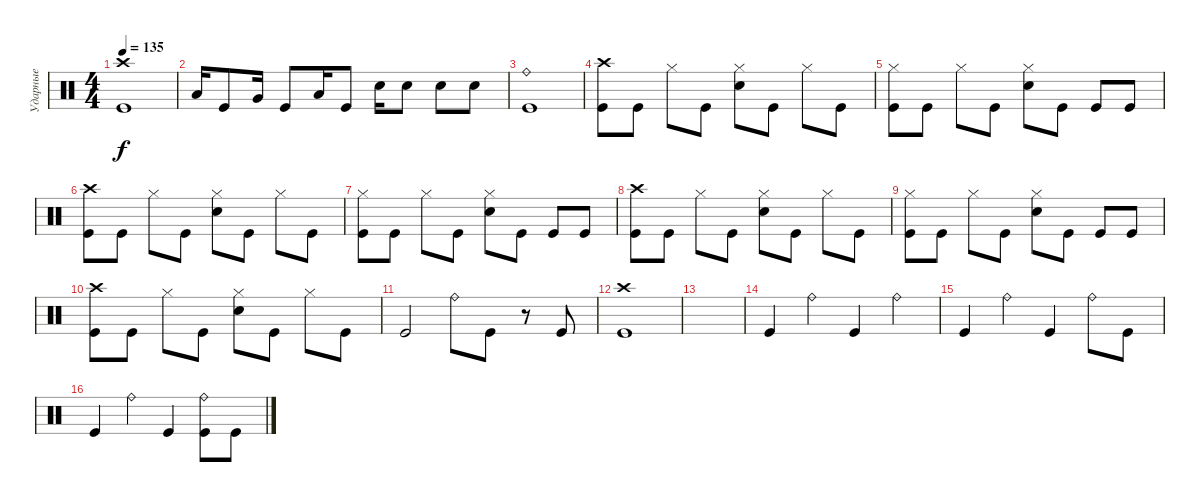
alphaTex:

\track ("Ударные" "Ударные") {instrument percussion}
\staff {score}
\articulation defaults
\ts (4 4)
\tempo 135
\clef neutral
\ks c
("Crash high (hit)" "Kick (hit)").1{dy f} |
"Low Tom (hit)".16 "Kick (hit)".8 "Very Low Tom (hit)".16 "Kick (hit)".8 "Low Tom (hit)".16 "Kick (hit)".8 "Electric Snare (hit)".16 "Electric Snare (hit)".8 "Electric Snare (hit)".8 "Electric Snare (hit)".8 |
("Ride (bell)" "Kick (hit)").1 |
("Crash high (hit)" "Kick (hit)").8 "Kick (hit)".8 "Hi-Hat (closed)".8 "Kick (hit)".8 ("Hi-Hat (closed)" "Electric Snare (hit)").8 "Kick (hit)".8 "Hi-Hat (closed)".8 "Kick (hit)".8 |
("Hi-Hat (closed)" "Kick (hit)").8 "Kick (hit)".8 "Hi-Hat (closed)".8 "Kick (hit)".8 ("Hi-Hat (closed)" "Electric Snare (hit)").8 "Kick (hit)".8 "Kick (hit)".8 "Kick (hit)".8 |
("Crash high (hit)" "Kick (hit)").8 "Kick (hit)".8 "Hi-Hat (closed)".8 "Kick (hit)".8 ("Hi-Hat (closed)" "Electric Snare (hit)").8 "Kick (hit)".8 "Hi-Hat (closed)".8 "Kick (hit)".8 |
("Hi-Hat (closed)" "Kick (hit)").8 "Kick (hit)".8 "Hi-Hat (closed)".8 "Kick (hit)".8 ("Hi-Hat (closed)" "Electric Snare (hit)").8 "Kick (hit)".8 "Kick (hit)".8 "Kick (hit)".8 |
("Crash high (hit)" "Kick (hit)").8 "Kick (hit)".8 "Hi-Hat (closed)".8 "Kick (hit)".8 ("Hi-Hat (closed)" "Electric Snare (hit)").8 "Kick (hit)".8 "Hi-Hat (closed)".8 "Kick (hit)".8 |
("Hi-Hat (closed)" "Kick (hit)").8 "Kick (hit)".8 "Hi-Hat (closed)".8 "Kick (hit)".8 ("Hi-Hat (closed)" "Electric Snare (hit)").8 "Kick (hit)".8 "Kick (hit)".8 "Kick (hit)".8 |
("Crash high (hit)" "Kick (hit)").8 "Kick (hit)".8 "Hi-Hat (closed)".8 "Kick (hit)".8 ("Hi-Hat (closed)" "Electric Snare (hit)").8 "Kick (hit)".8 "Hi-Hat (closed)".8 "Kick (hit)".8 |
"Kick (hit)".2 "Ride (bell)".8 "Kick (hit)".8 r.8 "Kick (hit)".8 |
("Crash high (hit)" "Kick (hit)").1 |
|
"Kick (hit)".4 "Ride (bell)".4 "Kick (hit)".4 "Ride (bell)".4 |
"Kick (hit)".4 "Ride (bell)".4 "Kick (hit)".4 "Ride (bell)".8 "Kick (hit)".8 |
"Kick (hit)".4 "Ride (bell)".4 "Kick (hit)".4 ("Ride (bell)" "Kick (hit)").8 "Kick (hit)".8
